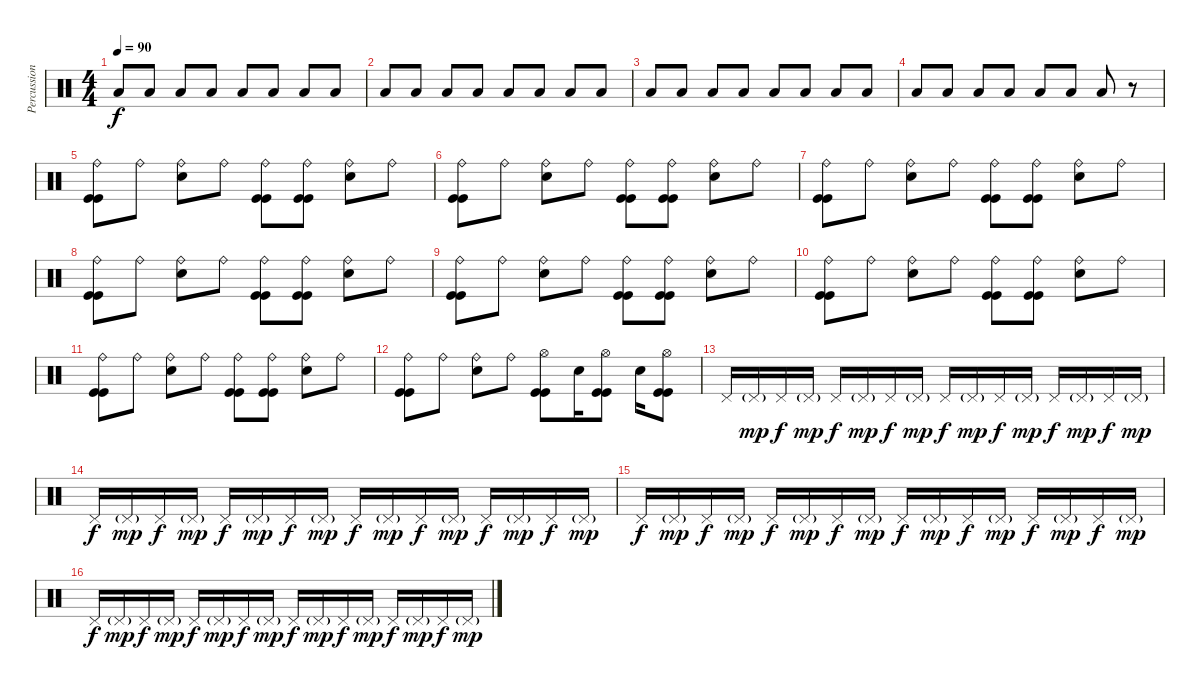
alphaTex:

\track ("Percussion" "Percussion") {instrument percussion}
\staff {score}
\articulation defaults
\ts (4 4)
\tempo 90
\clef neutral
\ks c "Low Tom (hit)".8{dy f} "Low Tom (hit)".8 "Low Tom (hit)".8 "Low Tom (hit)".8 "Low Tom (hit)".8 "Low Tom (hit)".8 "Low Tom (hit)".8 "Low Tom (hit)".8
|
"Low Tom (hit)".8 "Low Tom (hit)".8 "Low Tom (hit)".8 "Low Tom (hit)".8 "Low Tom (hit)".8 "Low Tom (hit)".8 "Low Tom (hit)".8 "Low Tom (hit)".8 |
"Low Tom (hit)".8 "Low Tom (hit)".8 "Low Tom (hit)".8 "Low Tom (hit)".8 "Low Tom (hit)".8 "Low Tom (hit)".8 "Low Tom (hit)".8 "Low Tom (hit)".8 |
"Low Tom (hit)".8 "Low Tom (hit)".8 "Low Tom (hit)".8 "Low Tom (hit)".8 "Low Tom (hit)".8 "Low Tom (hit)".8 "Low Tom (hit)".8 r.8 |
("Ride (bell)" "Kick (hit)" "Kick (hit)").8 "Ride (bell)".8 ("Ride (bell)" "Electric Snare (hit)").8 "Ride (bell)".8 ("Ride (bell)" "Kick (hit)" "Kick (hit)").8 ("Ride (bell)" "Kick (hit)" "Kick (hit)").8 ("Ride (bell)" "Electric Snare (hit)").8 "Ride (bell)".8 |
("Ride (bell)" "Kick (hit)" "Kick (hit)").8 "Ride (bell)".8 ("Ride (bell)" "Electric Snare (hit)").8 "Ride (bell)".8 ("Ride (bell)" "Kick (hit)" "Kick (hit)").8 ("Ride (bell)" "Kick (hit)" "Kick (hit)").8 ("Ride (bell)" "Electric Snare (hit)").8 "Ride (bell)".8 |
("Ride (bell)" "Kick (hit)" "Kick (hit)").8 "Ride (bell)".8 ("Ride (bell)" "Electric Snare (hit)").8 "Ride (bell)".8 ("Ride (bell)" "Kick (hit)" "Kick (hit)").8 ("Ride (bell)" "Kick (hit)" "Kick (hit)").8 ("Ride (bell)" "Electric Snare (hit)").8 "Ride (bell)".8 |
("Ride (bell)" "Kick (hit)" "Kick (hit)").8 "Ride (bell)".8 ("Ride (bell)" "Electric Snare (hit)").8 "Ride (bell)".8 ("Ride (bell)" "Kick (hit)" "Kick (hit)").8 ("Ride (bell)" "Kick (hit)" "Kick (hit)").8 ("Ride (bell)" "Electric Snare (hit)").8 "Ride (bell)".8 |
("Ride (bell)" "Kick (hit)" "Kick (hit)").8 "Ride (bell)".8 ("Ride (bell)" "Electric Snare (hit)").8 "Ride (bell)".8 ("Ride (bell)" "Kick (hit)" "Kick (hit)").8 ("Ride (bell)" "Kick (hit)" "Kick (hit)").8 ("Ride (bell)" "Electric Snare (hit)").8 "Ride (bell)".8 |
("Ride (bell)" "Kick (hit)" "Kick (hit)").8 "Ride (bell)".8 ("Ride (bell)" "Electric Snare (hit)").8 "Ride (bell)".8 ("Ride (bell)" "Kick (hit)" "Kick (hit)").8 ("Ride (bell)" "Kick (hit)" "Kick (hit)").8 ("Ride (bell)" "Electric Snare (hit)").8 "Ride (bell)".8 |
("Ride (bell)" "Kick (hit)" "Kick (hit)").8 "Ride (bell)".8 ("Ride (bell)" "Electric Snare (hit)").8 "Ride (bell)".8 ("Ride (bell)" "Kick (hit)" "Kick (hit)").8 ("Ride (bell)" "Kick (hit)" "Kick (hit)").8 ("Ride (bell)" "Electric Snare (hit)").8 "Ride (bell)".8 |
("Ride (bell)" "Kick (hit)" "Kick (hit)").8 "Ride (bell)".8 ("Ride (bell)" "Electric Snare (hit)").8 "Ride (bell)".8 ("Hi-Hat (open)" "Kick (hit)" "Kick (hit)").8 "Electric Snare (hit)".16 ("Hi-Hat (open)" "Kick (hit)" "Kick (hit)").8 "Electric Snare (hit)".16 ("Hi-Hat (open)" "Kick (hit)" "Kick (hit)").8 |
"Pedal Hi-Hat (hit)".16 "Pedal Hi-Hat (hit)"{g}.16{dy mp} "Pedal Hi-Hat (hit)".16{dy f} "Pedal Hi-Hat (hit)"{g}.16{dy mp} "Pedal Hi-Hat (hit)".16{dy f} "Pedal Hi-Hat (hit)"{g}.16{dy mp} "Pedal Hi-Hat (hit)".16{dy f} "Pedal Hi-Hat (hit)"{g}.16{dy mp} "Pedal Hi-Hat (hit)".16{dy f} "Pedal Hi-Hat (hit)"{g}.16{dy mp} "Pedal Hi-Hat (hit)".16{dy f} "Pedal Hi-Hat (hit)"{g}.16{dy mp} "Pedal Hi-Hat (hit)".16{dy f} "Pedal Hi-Hat (hit)"{g}.16{dy mp} "Pedal Hi-Hat (hit)".16{dy f} "Pedal Hi-Hat (hit)"{g}.16{dy mp} |
"Pedal Hi-Hat (hit)".16{dy f} "Pedal Hi-Hat (hit)"{g}.16{dy mp} "Pedal Hi-Hat (hit)".16{dy f} "Pedal Hi-Hat (hit)"{g}.16{dy mp} "Pedal Hi-Hat (hit)".16{dy f} "Pedal Hi-Hat (hit)"{g}.16{dy mp} "Pedal Hi-Hat (hit)".16{dy f} "Pedal Hi-Hat (hit)"{g}.16{dy mp} "Pedal Hi-Hat (hit)".16{dy f} "Pedal Hi-Hat (hit)"{g}.16{dy mp} "Pedal Hi-Hat (hit)".16{dy f} "Pedal Hi-Hat (hit)"{g}.16{dy mp} "Pedal Hi-Hat (hit)".16{dy f} "Pedal Hi-Hat (hit)"{g}.16{dy mp} "Pedal Hi-Hat (hit)".16{dy f} "Pedal Hi-Hat (hit)"{g}.16{dy mp} |
"Pedal Hi-Hat (hit)".16{dy f} "Pedal Hi-Hat (hit)"{g}.16{dy mp} "Pedal Hi-Hat (hit)".16{dy f} "Pedal Hi-Hat (hit)"{g}.16{dy mp} "Pedal Hi-Hat (hit)".16{dy f} "Pedal Hi-Hat (hit)"{g}.16{dy mp} "Pedal Hi-Hat (hit)".16{dy f} "Pedal Hi-Hat (hit)"{g}.16{dy mp} "Pedal Hi-Hat (hit)".16{dy f} "Pedal Hi-Hat (hit)"{g}.16{dy mp} "Pedal Hi-Hat (hit)".16{dy f} "Pedal Hi-Hat (hit)"{g}.16{dy mp} "Pedal Hi-Hat (hit)".16{dy f} "Pedal Hi-Hat (hit)"{g}.16{dy mp} "Pedal Hi-Hat (hit)".16{dy f} "Pedal Hi-Hat (hit)"{g}.16{dy mp} |
"Pedal Hi-Hat (hit)".16{dy f} "Pedal Hi-Hat (hit)"{g}.16{dy mp} "Pedal Hi-Hat (hit)".16{dy f} "Pedal Hi-Hat (hit)"{g}.16{dy mp} "Pedal Hi-Hat (hit)".16{dy f} "Pedal Hi-Hat (hit)"{g}.16{dy mp} "Pedal Hi-Hat (hit)".16{dy f} "Pedal Hi-Hat (hit)"{g}.16{dy mp} "Pedal Hi-Hat (hit)".16{dy f} "Pedal Hi-Hat (hit)"{g}.16{dy mp} "Pedal Hi-Hat (hit)".16{dy f} "Pedal Hi-Hat (hit)"{g}.16{dy mp} "Pedal Hi-Hat (hit)".16{dy f} "Pedal Hi-Hat (hit)"{g}.16{dy mp} "Pedal Hi-Hat (hit)".16{dy f} "Pedal Hi-Hat (hit)"{g}.16{dy mp}
